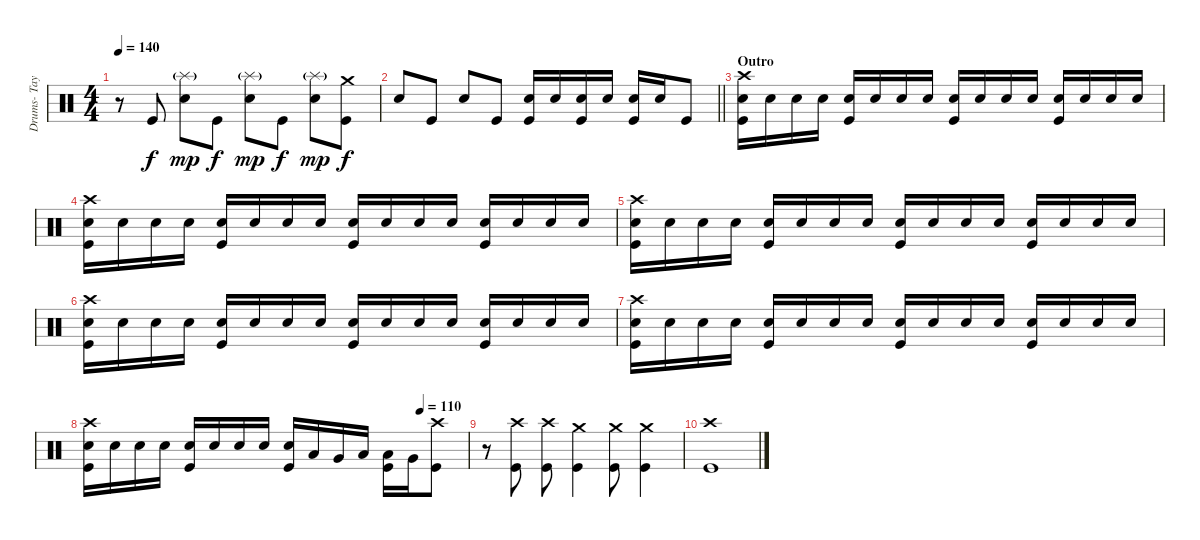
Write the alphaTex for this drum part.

\track ("Drums- Taylor Hawkins" "Drums- Tay") {instrument percussion}
\staff {score}
\articulation defaults
\ts (4 4)
\tempo 140
\clef neutral
\ks c
r.8{dy f} "Kick (hit)".8 ("Splash (hit)"{g} "Snare (hit) 2").8{dy mp} "Kick (hit)".8{dy f} ("Splash (hit)"{g} "Snare (hit) 2").8{dy mp} "Kick (hit)".8{dy f} ("Splash (hit)"{g} "Snare (hit) 2").8{dy mp} ("Crash medium (hit)" "Kick (hit)").8{dy f} |
\barLineRight lightlight "Snare (hit) 2".8 "Kick (hit)".8 "Snare (hit) 2".8 "Kick (hit)".8
("Snare (hit) 2" "Kick (hit)").16 "Snare (hit) 2".16 ("Snare (hit) 2" "Kick (hit)").16 "Snare (hit) 2".16 ("Snare (hit) 2" "Kick (hit)").16 "Snare (hit) 2".16 "Kick (hit)".8 |
\section ("" "Outro")
("Crash high (hit)" "Snare (hit) 2" "Kick (hit)").16 "Snare (hit) 2".16 "Snare (hit) 2".16 "Snare (hit) 2".16 ("Snare (hit) 2" "Kick (hit)").16 "Snare (hit) 2".16 "Snare (hit) 2".16 "Snare (hit) 2".16 ("Snare (hit) 2" "Kick (hit)").16 "Snare (hit) 2".16 "Snare (hit) 2".16 "Snare (hit) 2".16 ("Snare (hit) 2" "Kick (hit)").16 "Snare (hit) 2".16 "Snare (hit) 2".16 "Snare (hit) 2".16 |
("Crash high (hit)" "Snare (hit) 2" "Kick (hit)").16 "Snare (hit) 2".16 "Snare (hit) 2".16 "Snare (hit) 2".16 ("Snare (hit) 2" "Kick (hit)").16 "Snare (hit) 2".16 "Snare (hit) 2".16 "Snare (hit) 2".16 ("Snare (hit) 2" "Kick (hit)").16 "Snare (hit) 2".16 "Snare (hit) 2".16 "Snare (hit) 2".16 ("Snare (hit) 2" "Kick (hit)").16 "Snare (hit) 2".16 "Snare (hit) 2".16 "Snare (hit) 2".16 |
("Crash high (hit)" "Snare (hit) 2" "Kick (hit)").16 "Snare (hit) 2".16 "Snare (hit) 2".16 "Snare (hit) 2".16 ("Snare (hit) 2" "Kick (hit)").16 "Snare (hit) 2".16 "Snare (hit) 2".16 "Snare (hit) 2".16 ("Snare (hit) 2" "Kick (hit)").16 "Snare (hit) 2".16 "Snare (hit) 2".16 "Snare (hit) 2".16 ("Snare (hit) 2" "Kick (hit)").16 "Snare (hit) 2".16 "Snare (hit) 2".16 "Snare (hit) 2".16 |
("Crash high (hit)" "Snare (hit) 2" "Kick (hit)").16 "Snare (hit) 2".16 "Snare (hit) 2".16 "Snare (hit) 2".16 ("Snare (hit) 2" "Kick (hit)").16 "Snare (hit) 2".16 "Snare (hit) 2".16 "Snare (hit) 2".16 ("Snare (hit) 2" "Kick (hit)").16 "Snare (hit) 2".16 "Snare (hit) 2".16 "Snare (hit) 2".16 ("Snare (hit) 2" "Kick (hit)").16 "Snare (hit) 2".16 "Snare (hit) 2".16 "Snare (hit) 2".16 |
("Crash high (hit)" "Snare (hit) 2" "Kick (hit)").16 "Snare (hit) 2".16 "Snare (hit) 2".16 "Snare (hit) 2".16 ("Snare (hit) 2" "Kick (hit)").16 "Snare (hit) 2".16 "Snare (hit) 2".16 "Snare (hit) 2".16 ("Snare (hit) 2" "Kick (hit)").16 "Snare (hit) 2".16 "Snare (hit) 2".16 "Snare (hit) 2".16 ("Snare (hit) 2" "Kick (hit)").16 "Snare (hit) 2".16 "Snare (hit) 2".16 "Snare (hit) 2".16 |
\tempo (110 0.875)
("Crash high (hit)" "Snare (hit) 2" "Kick (hit)").16 "Snare (hit) 2".16 "Snare (hit) 2".16 "Snare (hit) 2".16 ("Snare (hit) 2" "Kick (hit)").16 "Snare (hit) 2".16 "Snare (hit) 2".16 "Snare (hit) 2".16 ("Snare (hit) 2" "Kick (hit)").16 "Low Tom (hit)".16 "Very Low Tom (hit)".16 "Low Floor Tom (hit)".16 ("Low Tom (hit)" "Kick (hit)").16 "Very Low Tom (hit)".16 ("Crash high (hit)" "Kick (hit)").8 |
r.8 ("Crash high (hit)" "Kick (hit)").8 ("Crash high (hit)" "Kick (hit)").8 ("Crash medium (hit)" "Kick (hit)").4 ("Crash medium (hit)" "Kick (hit)").8 ("Crash medium (hit)" "Kick (hit)").4 |
("Crash high (hit)" "Kick (hit)").1
